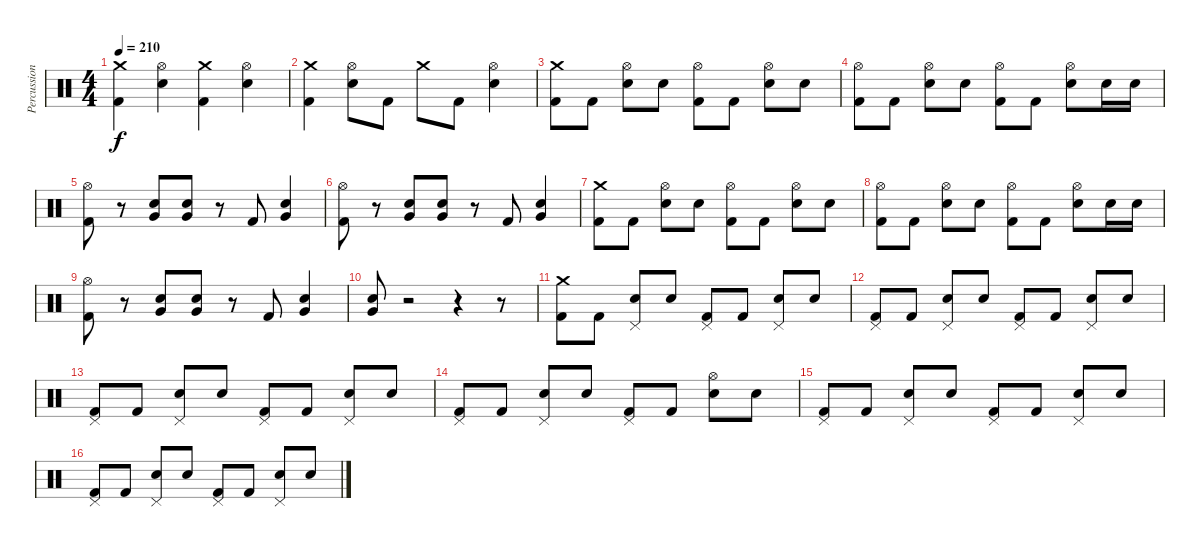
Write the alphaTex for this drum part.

\track ("Percussion" "Percussion") {instrument percussion}
\staff {score}
\articulation defaults
\ts (4 4)
\tempo 210
\clef neutral
\ks c
("Crash medium (hit)" "Kick (hit) 2").4{dy f} ("Hi-Hat (open)" "Electric Snare (hit)").4 ("Crash medium (hit)" "Kick (hit) 2").4 ("Hi-Hat (open)" "Electric Snare (hit)").4 |
("Crash medium (hit)" "Kick (hit) 2").4 ("Hi-Hat (open)" "Electric Snare (hit)").8 "Kick (hit) 2".8 "Crash medium (hit)".8 "Kick (hit) 2".8 ("Hi-Hat (open)" "Electric Snare (hit)").4 |
("Crash medium (hit)" "Kick (hit) 2").8 "Kick (hit) 2".8 ("Hi-Hat (open)" "Electric Snare (hit)").8 "Electric Snare (hit)".8 ("Hi-Hat (open)" "Kick (hit) 2").8 "Kick (hit) 2".8 ("Hi-Hat (open)" "Electric Snare (hit)").8 "Electric Snare (hit)".8 |
("Hi-Hat (open)" "Kick (hit) 2").8 "Kick (hit) 2".8 ("Hi-Hat (open)" "Electric Snare (hit)").8 "Electric Snare (hit)".8 ("Hi-Hat (open)" "Kick (hit) 2").8 "Kick (hit) 2".8 ("Hi-Hat (open)" "Electric Snare (hit)").8 "Electric Snare (hit)".16 "Electric Snare (hit)".16 |
("Hi-Hat (open)" "Kick (hit) 2").8 r.8 ("Very Low Tom (hit)" "Electric Snare (hit)").8 ("Very Low Tom (hit)" "Electric Snare (hit)").8 r.8 "Kick (hit) 2".8 ("Very Low Tom (hit)" "Electric Snare (hit)").4 |
("Hi-Hat (open)" "Kick (hit) 2").8 r.8 ("Very Low Tom (hit)" "Electric Snare (hit)").8 ("Very Low Tom (hit)" "Electric Snare (hit)").8 r.8 "Kick (hit) 2".8 ("Very Low Tom (hit)" "Electric Snare (hit)").4 |
("Crash medium (hit)" "Kick (hit) 2").8 "Kick (hit) 2".8 ("Hi-Hat (open)" "Electric Snare (hit)").8 "Electric Snare (hit)".8 ("Hi-Hat (open)" "Kick (hit) 2").8 "Kick (hit) 2".8 ("Hi-Hat (open)" "Electric Snare (hit)").8 "Electric Snare (hit)".8 |
("Hi-Hat (open)" "Kick (hit) 2").8 "Kick (hit) 2".8 ("Hi-Hat (open)" "Electric Snare (hit)").8 "Electric Snare (hit)".8 ("Hi-Hat (open)" "Kick (hit) 2").8 "Kick (hit) 2".8 ("Hi-Hat (open)" "Electric Snare (hit)").8 "Electric Snare (hit)".16 "Electric Snare (hit)".16 |
("Hi-Hat (open)" "Kick (hit) 2").8 r.8 ("Very Low Tom (hit)" "Electric Snare (hit)").8 ("Very Low Tom (hit)" "Electric Snare (hit)").8 r.8 "Kick (hit) 2".8 ("Very Low Tom (hit)" "Electric Snare (hit)").4 |
("Very Low Tom (hit)" "Electric Snare (hit)").8 r.2 r.4 r.8 |
("Crash medium (hit)" "Kick (hit) 2").8 "Kick (hit) 2".8 ("Pedal Hi-Hat (hit)" "Electric Snare (hit)").8 "Electric Snare (hit)".8 ("Pedal Hi-Hat (hit)" "Kick (hit) 2").8 "Kick (hit) 2".8 ("Pedal Hi-Hat (hit)" "Electric Snare (hit)").8 "Electric Snare (hit)".8 |
("Pedal Hi-Hat (hit)" "Kick (hit) 2").8 "Kick (hit) 2".8 ("Pedal Hi-Hat (hit)" "Electric Snare (hit)").8 "Electric Snare (hit)".8 ("Pedal Hi-Hat (hit)" "Kick (hit) 2").8 "Kick (hit) 2".8 ("Pedal Hi-Hat (hit)" "Electric Snare (hit)").8 "Electric Snare (hit)".8 |
("Pedal Hi-Hat (hit)" "Kick (hit) 2").8 "Kick (hit) 2".8 ("Pedal Hi-Hat (hit)" "Electric Snare (hit)").8 "Electric Snare (hit)".8 ("Pedal Hi-Hat (hit)" "Kick (hit) 2").8 "Kick (hit) 2".8 ("Pedal Hi-Hat (hit)" "Electric Snare (hit)").8 "Electric Snare (hit)".8 |
("Pedal Hi-Hat (hit)" "Kick (hit) 2").8 "Kick (hit) 2".8 ("Pedal Hi-Hat (hit)" "Electric Snare (hit)").8 "Electric Snare (hit)".8 ("Pedal Hi-Hat (hit)" "Kick (hit) 2").8 "Kick (hit) 2".8 ("Hi-Hat (open)" "Electric Snare (hit)").8 "Electric Snare (hit)".8 |
("Pedal Hi-Hat (hit)" "Kick (hit) 2").8 "Kick (hit) 2".8 ("Pedal Hi-Hat (hit)" "Electric Snare (hit)").8 "Electric Snare (hit)".8 ("Pedal Hi-Hat (hit)" "Kick (hit) 2").8 "Kick (hit) 2".8 ("Pedal Hi-Hat (hit)" "Electric Snare (hit)").8 "Electric Snare (hit)".8 |
("Pedal Hi-Hat (hit)" "Kick (hit) 2").8 "Kick (hit) 2".8 ("Pedal Hi-Hat (hit)" "Electric Snare (hit)").8 "Electric Snare (hit)".8 ("Pedal Hi-Hat (hit)" "Kick (hit) 2").8 "Kick (hit) 2".8 ("Pedal Hi-Hat (hit)" "Electric Snare (hit)").8 "Electric Snare (hit)".8
